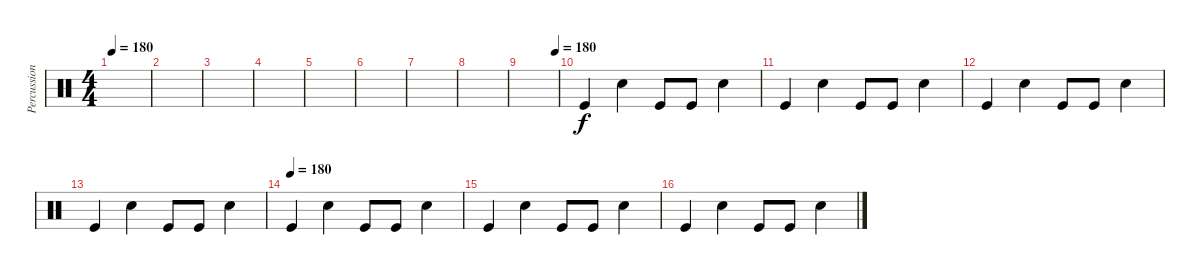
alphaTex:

\track ("Percussion" "Percussion") {instrument percussion}
\staff {score}
\articulation defaults
\ts (4 4)
\tempo 180
\tempo 90
\tempo 180
\clef neutral
\ks c
|
|
|
|
|
|
|
|
\tempo (180 0.9375)
|
"Kick (hit)".4{volume 10} "Snare (hit) 2".4 "Kick (hit)".8 "Kick (hit)".8 "Snare (hit) 2".4 |
"Kick (hit)".4{volume 10} "Snare (hit) 2".4 "Kick (hit)".8 "Kick (hit)".8 "Snare (hit) 2".4 |
"Kick (hit)".4{volume 10} "Snare (hit) 2".4 "Kick (hit)".8 "Kick (hit)".8 "Snare (hit) 2".4 |
"Kick (hit)".4{volume 10} "Snare (hit) 2".4 "Kick (hit)".8 "Kick (hit)".8 "Snare (hit) 2".4 |
\tempo (180)
"Kick (hit)".4{volume 10} "Snare (hit) 2".4 "Kick (hit)".8 "Kick (hit)".8 "Snare (hit) 2".4 |
"Kick (hit)".4{volume 10} "Snare (hit) 2".4 "Kick (hit)".8 "Kick (hit)".8 "Snare (hit) 2".4 |
"Kick (hit)".4{volume 10} "Snare (hit) 2".4 "Kick (hit)".8 "Kick (hit)".8 "Snare (hit) 2".4
